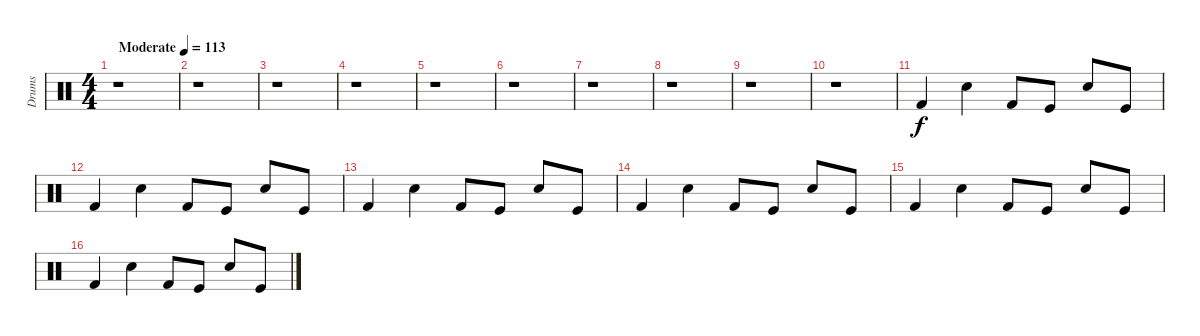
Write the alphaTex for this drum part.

\track ("Drums" "Drums") {instrument percussion}
\staff {score}
\articulation defaults
\ts (4 4)
\tempo (113 "Moderate")
\clef neutral
\ks c
r.1{dy f} |
r.1 |
r.1 |
r.1 |
r.1 |
r.1 |
r.1 |
r.1 |
r.1 |
r.1 |
"Kick (hit) 2".4 "Electric Snare (hit)".4 "Kick (hit) 2".8 "Kick (hit)".8 "Snare (hit) 2".8 "Kick (hit)".8 |
"Kick (hit) 2".4 "Electric Snare (hit)".4 "Kick (hit) 2".8 "Kick (hit)".8 "Snare (hit) 2".8 "Kick (hit)".8 |
"Kick (hit) 2".4 "Electric Snare (hit)".4 "Kick (hit) 2".8 "Kick (hit)".8 "Snare (hit) 2".8 "Kick (hit)".8 |
"Kick (hit) 2".4 "Electric Snare (hit)".4 "Kick (hit) 2".8 "Kick (hit)".8 "Snare (hit) 2".8 "Kick (hit)".8 |
"Kick (hit) 2".4 "Electric Snare (hit)".4 "Kick (hit) 2".8 "Kick (hit)".8 "Snare (hit) 2".8 "Kick (hit)".8 |
"Kick (hit) 2".4 "Electric Snare (hit)".4 "Kick (hit) 2".8 "Kick (hit)".8 "Snare (hit) 2".8 "Kick (hit)".8
